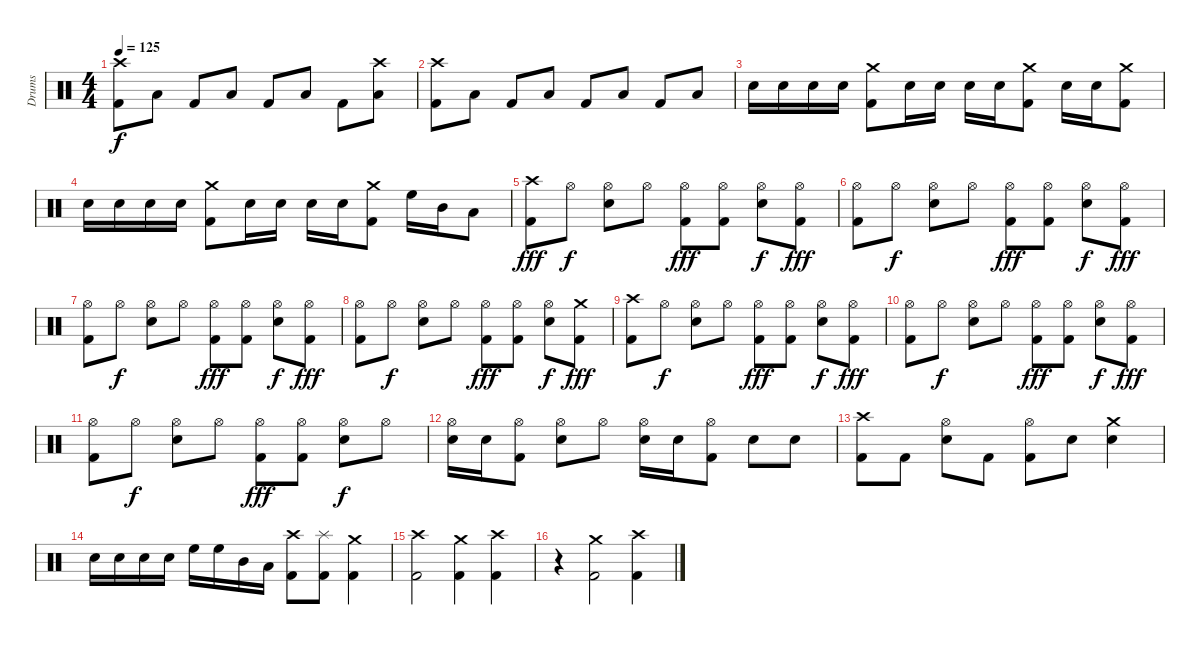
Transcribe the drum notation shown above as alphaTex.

\track ("Drums" "Drums") {instrument percussion}
\staff {score}
\articulation defaults
\ts (4 4)
\tempo 125
\clef neutral
\ks c
("Crash high (hit)" "Kick (hit) 2").8{dy f} "Low Floor Tom (hit)".8 "Kick (hit) 2".8 "Low Floor Tom (hit)".8 "Kick (hit) 2".8 "Low Floor Tom (hit)".8 "Kick (hit) 2".8 ("Crash high (hit)" "Low Floor Tom (hit)").8 |
("Crash high (hit)" "Kick (hit) 2").8 "Low Floor Tom (hit)".8 "Kick (hit) 2".8 "Low Floor Tom (hit)".8 "Kick (hit) 2".8 "Low Floor Tom (hit)".8 "Kick (hit) 2".8 "Low Floor Tom (hit)".8 |
"Snare (hit) 2".16 "Snare (hit) 2".16 "Snare (hit) 2".16 "Snare (hit) 2".16 ("Crash medium (hit)" "Kick (hit) 2").8 "Snare (hit) 2".16 "Snare (hit) 2".16 "Snare (hit) 2".16 "Snare (hit) 2".16 ("Crash medium (hit)" "Kick (hit) 2").8 "Snare (hit) 2".16 "Snare (hit) 2".16 ("Crash medium (hit)" "Kick (hit) 2").8 |
"Snare (hit) 2".16 "Snare (hit) 2".16 "Snare (hit) 2".16 "Snare (hit) 2".16 ("Crash medium (hit)" "Kick (hit) 2").8 "Snare (hit) 2".16 "Snare (hit) 2".16 "Snare (hit) 2".16 "Snare (hit) 2".16 ("Crash medium (hit)" "Kick (hit) 2").8 "High Floor Tom (hit)".16 "Mid Tom (hit)".16 "Low Tom (hit)".8 |
("Crash high (hit)" "Kick (hit) 2").8{dy fff} "Hi-Hat (open)".8{dy f} ("Hi-Hat (open)" "Snare (hit) 2").8 "Hi-Hat (open)".8 ("Hi-Hat (open)" "Kick (hit) 2").8{dy fff} ("Hi-Hat (open)" "Kick (hit) 2").8 ("Hi-Hat (open)" "Snare (hit) 2").8{dy f} ("Hi-Hat (open)" "Kick (hit) 2").8{dy fff} |
("Hi-Hat (open)" "Kick (hit) 2").8 "Hi-Hat (open)".8{dy f} ("Hi-Hat (open)" "Snare (hit) 2").8 "Hi-Hat (open)".8 ("Hi-Hat (open)" "Kick (hit) 2").8{dy fff} ("Hi-Hat (open)" "Kick (hit) 2").8 ("Hi-Hat (open)" "Snare (hit) 2").8{dy f} ("Hi-Hat (open)" "Kick (hit) 2").8{dy fff} |
("Hi-Hat (open)" "Kick (hit) 2").8 "Hi-Hat (open)".8{dy f} ("Hi-Hat (open)" "Snare (hit) 2").8 "Hi-Hat (open)".8 ("Hi-Hat (open)" "Kick (hit) 2").8{dy fff} ("Hi-Hat (open)" "Kick (hit) 2").8 ("Hi-Hat (open)" "Snare (hit) 2").8{dy f} ("Hi-Hat (open)" "Kick (hit) 2").8{dy fff} |
("Hi-Hat (open)" "Kick (hit) 2").8 "Hi-Hat (open)".8{dy f} ("Hi-Hat (open)" "Snare (hit) 2").8 "Hi-Hat (open)".8 ("Hi-Hat (open)" "Kick (hit) 2").8{dy fff} ("Hi-Hat (open)" "Kick (hit) 2").8 ("Hi-Hat (open)" "Snare (hit) 2").8{dy f} ("Crash medium (hit)" "Kick (hit) 2").8{dy fff} |
("Crash high (hit)" "Kick (hit) 2").8 "Hi-Hat (open)".8{dy f} ("Hi-Hat (open)" "Snare (hit) 2").8 "Hi-Hat (open)".8 ("Hi-Hat (open)" "Kick (hit) 2").8{dy fff} ("Hi-Hat (open)" "Kick (hit) 2").8 ("Hi-Hat (open)" "Snare (hit) 2").8{dy f} ("Hi-Hat (open)" "Kick (hit) 2").8{dy fff} |
("Hi-Hat (open)" "Kick (hit) 2").8 "Hi-Hat (open)".8{dy f} ("Hi-Hat (open)" "Snare (hit) 2").8 "Hi-Hat (open)".8 ("Hi-Hat (open)" "Kick (hit) 2").8{dy fff} ("Hi-Hat (open)" "Kick (hit) 2").8 ("Hi-Hat (open)" "Snare (hit) 2").8{dy f} ("Hi-Hat (open)" "Kick (hit) 2").8{dy fff} |
("Hi-Hat (open)" "Kick (hit) 2").8 "Hi-Hat (open)".8{dy f} ("Hi-Hat (open)" "Snare (hit) 2").8 "Hi-Hat (open)".8 ("Hi-Hat (open)" "Kick (hit) 2").8{dy fff} ("Hi-Hat (open)" "Kick (hit) 2").8 ("Hi-Hat (open)" "Snare (hit) 2").8{dy f} "Hi-Hat (open)".8 |
("Hi-Hat (open)" "Snare (hit) 2").16 "Snare (hit) 2".16 ("Hi-Hat (open)" "Kick (hit) 2").8 ("Hi-Hat (open)" "Snare (hit) 2").8 "Hi-Hat (open)".8 ("Hi-Hat (open)" "Snare (hit) 2").16 "Snare (hit) 2".16 ("Hi-Hat (open)" "Kick (hit) 2").8 "Snare (hit) 2".8 "Snare (hit) 2".8 |
("Crash high (hit)" "Kick (hit) 2").8 "Kick (hit) 2".8 ("Hi-Hat (open)" "Snare (hit) 2").8 "Kick (hit) 2".8 ("Hi-Hat (open)" "Kick (hit) 2").8 "Snare (hit) 2".8 ("Crash medium (hit)" "Snare (hit) 2").4 |
"Snare (hit) 2".16 "Snare (hit) 2".16 "Snare (hit) 2".16 "Snare (hit) 2".16 "High Floor Tom (hit)".16 "High Floor Tom (hit)".16 "Mid Tom (hit)".16 "Low Tom (hit)".16 ("Crash high (hit)" "Kick (hit) 2").8 ("Splash (hit)" "Kick (hit) 2").8 ("Crash medium (hit)" "Kick (hit) 2").4 |
("Crash high (hit)" "Kick (hit) 2").2 ("Crash medium (hit)" "Kick (hit) 2").4 ("Crash high (hit)" "Kick (hit) 2").4 |
r.4 ("Crash medium (hit)" "Kick (hit) 2").2 ("Crash high (hit)" "Kick (hit) 2").4
